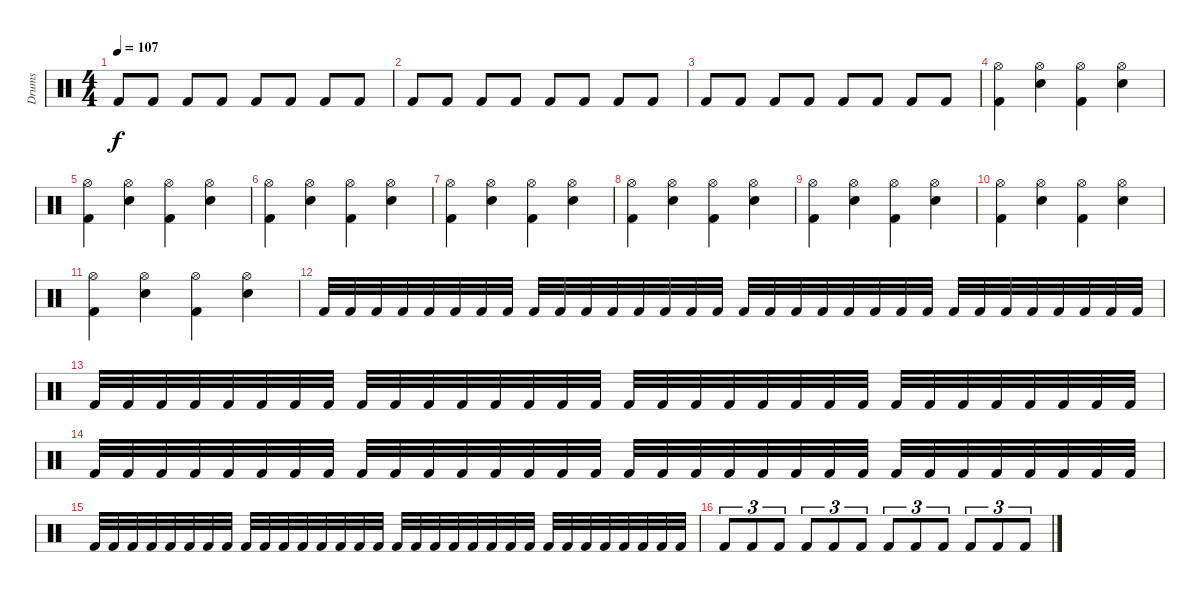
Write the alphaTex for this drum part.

\track ("Drums" "Drums") {instrument percussion}
\staff {score}
\articulation defaults
\ts (4 4)
\tempo 107
\clef neutral
\ks c "Kick (hit) 2".8{dy f} "Kick (hit) 2".8 "Kick (hit) 2".8 "Kick (hit) 2".8 "Kick (hit) 2".8 "Kick (hit) 2".8 "Kick (hit) 2".8 "Kick (hit) 2".8
|
"Kick (hit) 2".8 "Kick (hit) 2".8 "Kick (hit) 2".8 "Kick (hit) 2".8 "Kick (hit) 2".8 "Kick (hit) 2".8 "Kick (hit) 2".8 "Kick (hit) 2".8 |
"Kick (hit) 2".8 "Kick (hit) 2".8 "Kick (hit) 2".8 "Kick (hit) 2".8 "Kick (hit) 2".8 "Kick (hit) 2".8 "Kick (hit) 2".8 "Kick (hit) 2".8 |
("Kick (hit) 2" "Hi-Hat (open)").4 ("Snare (hit) 2" "Hi-Hat (open)").4 ("Kick (hit) 2" "Hi-Hat (open)").4 ("Snare (hit) 2" "Hi-Hat (open)").4 |
("Kick (hit) 2" "Hi-Hat (open)").4 ("Snare (hit) 2" "Hi-Hat (open)").4 ("Kick (hit) 2" "Hi-Hat (open)").4 ("Snare (hit) 2" "Hi-Hat (open)").4 |
("Kick (hit) 2" "Hi-Hat (open)").4 ("Snare (hit) 2" "Hi-Hat (open)").4 ("Kick (hit) 2" "Hi-Hat (open)").4 ("Snare (hit) 2" "Hi-Hat (open)").4 |
("Kick (hit) 2" "Hi-Hat (open)").4 ("Snare (hit) 2" "Hi-Hat (open)").4 ("Kick (hit) 2" "Hi-Hat (open)").4 ("Snare (hit) 2" "Hi-Hat (open)").4 |
("Kick (hit) 2" "Hi-Hat (open)").4 ("Snare (hit) 2" "Hi-Hat (open)").4 ("Kick (hit) 2" "Hi-Hat (open)").4 ("Snare (hit) 2" "Hi-Hat (open)").4 |
("Kick (hit) 2" "Hi-Hat (open)").4 ("Snare (hit) 2" "Hi-Hat (open)").4 ("Kick (hit) 2" "Hi-Hat (open)").4 ("Snare (hit) 2" "Hi-Hat (open)").4 |
("Kick (hit) 2" "Hi-Hat (open)").4 ("Snare (hit) 2" "Hi-Hat (open)").4 ("Kick (hit) 2" "Hi-Hat (open)").4 ("Snare (hit) 2" "Hi-Hat (open)").4 |
("Kick (hit) 2" "Hi-Hat (open)").4 ("Snare (hit) 2" "Hi-Hat (open)").4 ("Kick (hit) 2" "Hi-Hat (open)").4 ("Snare (hit) 2" "Hi-Hat (open)").4 |
"Kick (hit) 2".32 "Kick (hit) 2".32 "Kick (hit) 2".32 "Kick (hit) 2".32 "Kick (hit) 2".32 "Kick (hit) 2".32 "Kick (hit) 2".32 "Kick (hit) 2".32 "Kick (hit) 2".32 "Kick (hit) 2".32 "Kick (hit) 2".32 "Kick (hit) 2".32 "Kick (hit) 2".32 "Kick (hit) 2".32 "Kick (hit) 2".32 "Kick (hit) 2".32 "Kick (hit) 2".32 "Kick (hit) 2".32 "Kick (hit) 2".32 "Kick (hit) 2".32 "Kick (hit) 2".32 "Kick (hit) 2".32 "Kick (hit) 2".32 "Kick (hit) 2".32 "Kick (hit) 2".32 "Kick (hit) 2".32 "Kick (hit) 2".32 "Kick (hit) 2".32 "Kick (hit) 2".32 "Kick (hit) 2".32 "Kick (hit) 2".32 "Kick (hit) 2".32 |
"Kick (hit) 2".32 "Kick (hit) 2".32 "Kick (hit) 2".32 "Kick (hit) 2".32 "Kick (hit) 2".32 "Kick (hit) 2".32 "Kick (hit) 2".32 "Kick (hit) 2".32 "Kick (hit) 2".32 "Kick (hit) 2".32 "Kick (hit) 2".32 "Kick (hit) 2".32 "Kick (hit) 2".32 "Kick (hit) 2".32 "Kick (hit) 2".32 "Kick (hit) 2".32 "Kick (hit) 2".32 "Kick (hit) 2".32 "Kick (hit) 2".32 "Kick (hit) 2".32 "Kick (hit) 2".32 "Kick (hit) 2".32 "Kick (hit) 2".32 "Kick (hit) 2".32 "Kick (hit) 2".32 "Kick (hit) 2".32 "Kick (hit) 2".32 "Kick (hit) 2".32 "Kick (hit) 2".32 "Kick (hit) 2".32 "Kick (hit) 2".32 "Kick (hit) 2".32 |
"Kick (hit) 2".32 "Kick (hit) 2".32 "Kick (hit) 2".32 "Kick (hit) 2".32 "Kick (hit) 2".32 "Kick (hit) 2".32 "Kick (hit) 2".32 "Kick (hit) 2".32 "Kick (hit) 2".32 "Kick (hit) 2".32 "Kick (hit) 2".32 "Kick (hit) 2".32 "Kick (hit) 2".32 "Kick (hit) 2".32 "Kick (hit) 2".32 "Kick (hit) 2".32 "Kick (hit) 2".32 "Kick (hit) 2".32 "Kick (hit) 2".32 "Kick (hit) 2".32 "Kick (hit) 2".32 "Kick (hit) 2".32 "Kick (hit) 2".32 "Kick (hit) 2".32 "Kick (hit) 2".32 "Kick (hit) 2".32 "Kick (hit) 2".32 "Kick (hit) 2".32 "Kick (hit) 2".32 "Kick (hit) 2".32 "Kick (hit) 2".32 "Kick (hit) 2".32 |
"Kick (hit) 2".32 "Kick (hit) 2".32 "Kick (hit) 2".32 "Kick (hit) 2".32 "Kick (hit) 2".32 "Kick (hit) 2".32 "Kick (hit) 2".32 "Kick (hit) 2".32 "Kick (hit) 2".32 "Kick (hit) 2".32 "Kick (hit) 2".32 "Kick (hit) 2".32 "Kick (hit) 2".32 "Kick (hit) 2".32 "Kick (hit) 2".32 "Kick (hit) 2".32 "Kick (hit) 2".32 "Kick (hit) 2".32 "Kick (hit) 2".32 "Kick (hit) 2".32 "Kick (hit) 2".32 "Kick (hit) 2".32 "Kick (hit) 2".32 "Kick (hit) 2".32 "Kick (hit) 2".32 "Kick (hit) 2".32 "Kick (hit) 2".32 "Kick (hit) 2".32 "Kick (hit) 2".32 "Kick (hit) 2".32 "Kick (hit) 2".32 "Kick (hit) 2".32 |
"Kick (hit) 2".8{tu (3 2)} "Kick (hit) 2".8{tu (3 2)} "Kick (hit) 2".8{tu (3 2)} "Kick (hit) 2".8{tu (3 2)} "Kick (hit) 2".8{tu (3 2)} "Kick (hit) 2".8{tu (3 2)} "Kick (hit) 2".8{tu (3 2)} "Kick (hit) 2".8{tu (3 2)} "Kick (hit) 2".8{tu (3 2)} "Kick (hit) 2".8{tu (3 2)} "Kick (hit) 2".8{tu (3 2)} "Kick (hit) 2".8{tu (3 2)}
